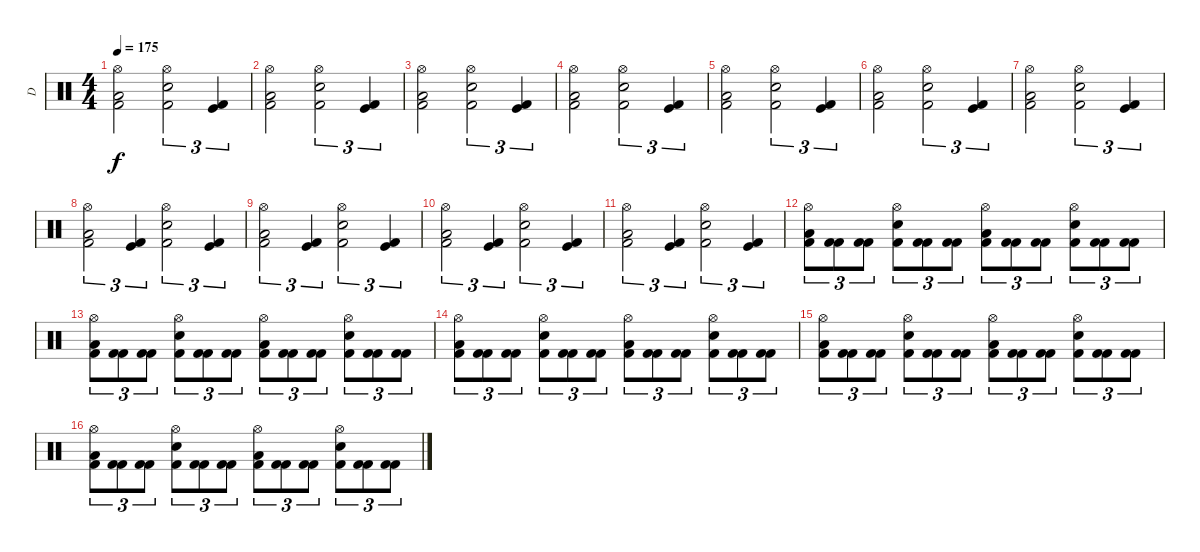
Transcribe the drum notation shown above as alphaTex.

\track ("D" "D") {instrument percussion}
\staff {score}
\articulation defaults
\ts (4 4)
\tempo 175
\clef neutral
\ks c
("Hi-Hat (open)" "Low Floor Tom (hit)" "Kick (hit) 2").2{dy f} ("Hi-Hat (open)" "Electric Snare (hit)" "Kick (hit) 2").2{tu (3 2)} ("Kick (hit)" "Kick (hit) 2").4{tu (3 2)} |
("Hi-Hat (open)" "Low Floor Tom (hit)" "Kick (hit) 2").2 ("Hi-Hat (open)" "Electric Snare (hit)" "Kick (hit) 2").2{tu (3 2)} ("Kick (hit)" "Kick (hit) 2").4{tu (3 2)} |
("Hi-Hat (open)" "Low Floor Tom (hit)" "Kick (hit) 2").2 ("Hi-Hat (open)" "Electric Snare (hit)" "Kick (hit) 2").2{tu (3 2)} ("Kick (hit)" "Kick (hit) 2").4{tu (3 2)} |
("Hi-Hat (open)" "Low Floor Tom (hit)" "Kick (hit) 2").2 ("Hi-Hat (open)" "Electric Snare (hit)" "Kick (hit) 2").2{tu (3 2)} ("Kick (hit)" "Kick (hit) 2").4{tu (3 2)} |
("Hi-Hat (open)" "Low Floor Tom (hit)" "Kick (hit) 2").2 ("Hi-Hat (open)" "Electric Snare (hit)" "Kick (hit) 2").2{tu (3 2)} ("Kick (hit)" "Kick (hit) 2").4{tu (3 2)} |
("Hi-Hat (open)" "Low Floor Tom (hit)" "Kick (hit) 2").2 ("Hi-Hat (open)" "Electric Snare (hit)" "Kick (hit) 2").2{tu (3 2)} ("Kick (hit)" "Kick (hit) 2").4{tu (3 2)} |
("Hi-Hat (open)" "Low Floor Tom (hit)" "Kick (hit) 2").2 ("Hi-Hat (open)" "Electric Snare (hit)" "Kick (hit) 2").2{tu (3 2)} ("Kick (hit)" "Kick (hit) 2").4{tu (3 2)} |
("Hi-Hat (open)" "Low Floor Tom (hit)" "Kick (hit) 2").2{tu (3 2)} ("Kick (hit)" "Kick (hit) 2").4{tu (3 2)} ("Hi-Hat (open)" "Electric Snare (hit)" "Kick (hit) 2").2{tu (3 2)} ("Kick (hit)" "Kick (hit) 2").4{tu (3 2)} |
("Hi-Hat (open)" "Low Floor Tom (hit)" "Kick (hit) 2").2{tu (3 2)} ("Kick (hit)" "Kick (hit) 2").4{tu (3 2)} ("Hi-Hat (open)" "Electric Snare (hit)" "Kick (hit) 2").2{tu (3 2)} ("Kick (hit)" "Kick (hit) 2").4{tu (3 2)} |
("Hi-Hat (open)" "Low Floor Tom (hit)" "Kick (hit) 2").2{tu (3 2)} ("Kick (hit)" "Kick (hit) 2").4{tu (3 2)} ("Hi-Hat (open)" "Electric Snare (hit)" "Kick (hit) 2").2{tu (3 2)} ("Kick (hit)" "Kick (hit) 2").4{tu (3 2)} |
("Hi-Hat (open)" "Low Floor Tom (hit)" "Kick (hit) 2").2{tu (3 2)} ("Kick (hit)" "Kick (hit) 2").4{tu (3 2)} ("Hi-Hat (open)" "Electric Snare (hit)" "Kick (hit) 2").2{tu (3 2)} ("Kick (hit)" "Kick (hit) 2").4{tu (3 2)} |
("Hi-Hat (open)" "Low Floor Tom (hit)" "Kick (hit) 2").8{tu (3 2)} ("Kick (hit) 2" "Kick (hit) 2").8{tu (3 2)} ("Kick (hit) 2" "Kick (hit) 2").8{tu (3 2)} ("Hi-Hat (open)" "Electric Snare (hit)" "Kick (hit) 2").8{tu (3 2)} ("Kick (hit) 2" "Kick (hit) 2").8{tu (3 2)} ("Kick (hit) 2" "Kick (hit) 2").8{tu (3 2)} ("Hi-Hat (open)" "Low Floor Tom (hit)" "Kick (hit) 2").8{tu (3 2)} ("Kick (hit) 2" "Kick (hit) 2").8{tu (3 2)} ("Kick (hit) 2" "Kick (hit) 2").8{tu (3 2)} ("Hi-Hat (open)" "Snare (hit) 2" "Kick (hit) 2").8{tu (3 2)} ("Kick (hit) 2" "Kick (hit) 2").8{tu (3 2)} ("Kick (hit) 2" "Kick (hit) 2").8{tu (3 2)} |
("Hi-Hat (open)" "Low Floor Tom (hit)" "Kick (hit) 2").8{tu (3 2)} ("Kick (hit) 2" "Kick (hit) 2").8{tu (3 2)} ("Kick (hit) 2" "Kick (hit) 2").8{tu (3 2)} ("Hi-Hat (open)" "Electric Snare (hit)" "Kick (hit) 2").8{tu (3 2)} ("Kick (hit) 2" "Kick (hit) 2").8{tu (3 2)} ("Kick (hit) 2" "Kick (hit) 2").8{tu (3 2)} ("Hi-Hat (open)" "Low Floor Tom (hit)" "Kick (hit) 2").8{tu (3 2)} ("Kick (hit) 2" "Kick (hit) 2").8{tu (3 2)} ("Kick (hit) 2" "Kick (hit) 2").8{tu (3 2)} ("Hi-Hat (open)" "Snare (hit) 2" "Kick (hit) 2").8{tu (3 2)} ("Kick (hit) 2" "Kick (hit) 2").8{tu (3 2)} ("Kick (hit) 2" "Kick (hit) 2").8{tu (3 2)} |
("Hi-Hat (open)" "Low Floor Tom (hit)" "Kick (hit) 2").8{tu (3 2)} ("Kick (hit) 2" "Kick (hit) 2").8{tu (3 2)} ("Kick (hit) 2" "Kick (hit) 2").8{tu (3 2)} ("Hi-Hat (open)" "Electric Snare (hit)" "Kick (hit) 2").8{tu (3 2)} ("Kick (hit) 2" "Kick (hit) 2").8{tu (3 2)} ("Kick (hit) 2" "Kick (hit) 2").8{tu (3 2)} ("Hi-Hat (open)" "Low Floor Tom (hit)" "Kick (hit) 2").8{tu (3 2)} ("Kick (hit) 2" "Kick (hit) 2").8{tu (3 2)} ("Kick (hit) 2" "Kick (hit) 2").8{tu (3 2)} ("Hi-Hat (open)" "Snare (hit) 2" "Kick (hit) 2").8{tu (3 2)} ("Kick (hit) 2" "Kick (hit) 2").8{tu (3 2)} ("Kick (hit) 2" "Kick (hit) 2").8{tu (3 2)} |
("Hi-Hat (open)" "Low Floor Tom (hit)" "Kick (hit) 2").8{tu (3 2)} ("Kick (hit) 2" "Kick (hit) 2").8{tu (3 2)} ("Kick (hit) 2" "Kick (hit) 2").8{tu (3 2)} ("Hi-Hat (open)" "Electric Snare (hit)" "Kick (hit) 2").8{tu (3 2)} ("Kick (hit) 2" "Kick (hit) 2").8{tu (3 2)} ("Kick (hit) 2" "Kick (hit) 2").8{tu (3 2)} ("Hi-Hat (open)" "Low Floor Tom (hit)" "Kick (hit) 2").8{tu (3 2)} ("Kick (hit) 2" "Kick (hit) 2").8{tu (3 2)} ("Kick (hit) 2" "Kick (hit) 2").8{tu (3 2)} ("Hi-Hat (open)" "Snare (hit) 2" "Kick (hit) 2").8{tu (3 2)} ("Kick (hit) 2" "Kick (hit) 2").8{tu (3 2)} ("Kick (hit) 2" "Kick (hit) 2").8{tu (3 2)} |
("Hi-Hat (open)" "Low Floor Tom (hit)" "Kick (hit) 2").8{tu (3 2)} ("Kick (hit) 2" "Kick (hit) 2").8{tu (3 2)} ("Kick (hit) 2" "Kick (hit) 2").8{tu (3 2)} ("Hi-Hat (open)" "Electric Snare (hit)" "Kick (hit) 2").8{tu (3 2)} ("Kick (hit) 2" "Kick (hit) 2").8{tu (3 2)} ("Kick (hit) 2" "Kick (hit) 2").8{tu (3 2)} ("Hi-Hat (open)" "Low Floor Tom (hit)" "Kick (hit) 2").8{tu (3 2)} ("Kick (hit) 2" "Kick (hit) 2").8{tu (3 2)} ("Kick (hit) 2" "Kick (hit) 2").8{tu (3 2)} ("Hi-Hat (open)" "Snare (hit) 2" "Kick (hit) 2").8{tu (3 2)} ("Kick (hit) 2" "Kick (hit) 2").8{tu (3 2)} ("Kick (hit) 2" "Kick (hit) 2").8{tu (3 2)}
